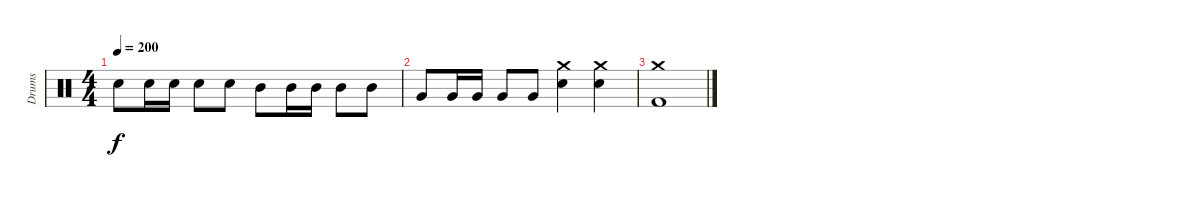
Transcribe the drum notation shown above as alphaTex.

\track ("Drums" "Drums") {instrument percussion}
\staff {score}
\articulation defaults
\ts (4 4)
\tempo 200
\clef neutral
\ks c "Snare (hit) 2".8{dy f} "Snare (hit) 2".16 "Snare (hit) 2".16 "Snare (hit) 2".8 "Snare (hit) 2".8 "Mid Tom (hit)".8 "Mid Tom (hit)".16 "Mid Tom (hit)".16 "Mid Tom (hit)".8 "Mid Tom (hit)".8
|
"Very Low Tom (hit)".8 "Very Low Tom (hit)".16 "Very Low Tom (hit)".16 "Very Low Tom (hit)".8 "Very Low Tom (hit)".8 ("Crash medium (hit)" "Snare (hit) 2").4 ("Crash medium (hit)" "Snare (hit) 2").4 |
("Crash medium (hit)" "Kick (hit) 2").1
